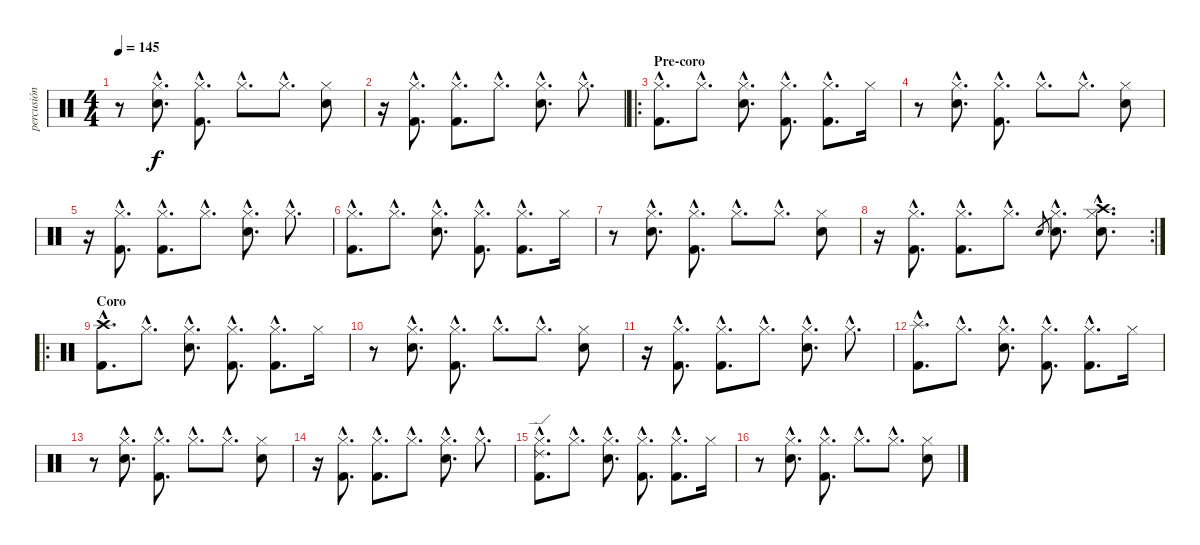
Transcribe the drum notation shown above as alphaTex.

\track ("percusión" "percusión") {instrument percussion}
\staff {score}
\articulation defaults
\ts (4 4)
\tempo 145
\clef neutral
\ks c
r.8{dy f} ("Hi-Hat (closed)"{hac} "Electric Snare (hit)"{hac}).8{d} ("Kick (hit) 2"{hac} "Hi-Hat (closed)"{hac}).8{d} "Hi-Hat (closed)"{hac}.8{d} "Hi-Hat (closed)"{hac}.8{d} ("Hi-Hat (closed)" "Electric Snare (hit)").8 |
r.16 ("Kick (hit) 2"{hac} "Hi-Hat (closed)"{hac}).8{d} ("Kick (hit) 2"{hac} "Hi-Hat (closed)"{hac}).8{d} "Hi-Hat (closed)"{hac}.8{d} ("Hi-Hat (closed)"{hac} "Electric Snare (hit)"{hac}).8{d} "Hi-Hat (closed)"{hac}.8{d} |
\ro
\section ("" "Pre-coro")
("Kick (hit) 2"{hac} "Hi-Hat (closed)"{hac}).8{d} "Hi-Hat (closed)"{hac}.8{d} ("Hi-Hat (closed)"{hac} "Electric Snare (hit)"{hac}).8{d} ("Kick (hit) 2"{hac} "Hi-Hat (closed)"{hac}).8{d} ("Kick (hit) 2"{hac} "Hi-Hat (closed)"{hac}).8{d} "Hi-Hat (closed)".16 |
r.8 ("Hi-Hat (closed)"{hac} "Electric Snare (hit)"{hac}).8{d} ("Kick (hit) 2"{hac} "Hi-Hat (closed)"{hac}).8{d} "Hi-Hat (closed)"{hac}.8{d} "Hi-Hat (closed)"{hac}.8{d} ("Hi-Hat (closed)" "Electric Snare (hit)").8 |
r.16 ("Kick (hit) 2"{hac} "Hi-Hat (closed)"{hac}).8{d} ("Kick (hit) 2"{hac} "Hi-Hat (closed)"{hac}).8{d} "Hi-Hat (closed)"{hac}.8{d} ("Hi-Hat (closed)"{hac} "Electric Snare (hit)"{hac}).8{d} "Hi-Hat (closed)"{hac}.8{d} |
("Kick (hit) 2"{hac} "Hi-Hat (closed)"{hac}).8{d} "Hi-Hat (closed)"{hac}.8{d} ("Hi-Hat (closed)"{hac} "Electric Snare (hit)"{hac}).8{d} ("Kick (hit) 2"{hac} "Hi-Hat (closed)"{hac}).8{d} ("Kick (hit) 2"{hac} "Hi-Hat (closed)"{hac}).8{d} "Hi-Hat (closed)".16 |
r.8 ("Hi-Hat (closed)"{hac} "Electric Snare (hit)"{hac}).8{d} ("Kick (hit) 2"{hac} "Hi-Hat (closed)"{hac}).8{d} "Hi-Hat (closed)"{hac}.8{d} "Hi-Hat (closed)"{hac}.8{d} ("Hi-Hat (closed)" "Electric Snare (hit)").8 |
\rc 2
r.16 ("Kick (hit) 2"{hac} "Hi-Hat (closed)"{hac}).8{d} ("Kick (hit) 2"{hac} "Hi-Hat (closed)"{hac}).8{d} "Hi-Hat (closed)"{hac}.8{d} "Electric Snare (hit)".8{gr} ("Hi-Hat (closed)"{hac} "Electric Snare (hit)"{hac}).8{d} ("Hi-Hat (closed)"{hac} "Electric Snare (hit)"{hac} "Crash high (hit)"{hac}).8{d} |
\ro
\section ("" "Coro")
("Kick (hit) 2"{hac} "Crash high (hit)"{hac}).8{d} "Hi-Hat (closed)"{hac}.8{d} ("Hi-Hat (closed)"{hac} "Electric Snare (hit)"{hac}).8{d} ("Kick (hit) 2"{hac} "Hi-Hat (closed)"{hac}).8{d} ("Kick (hit) 2"{hac} "Hi-Hat (closed)"{hac}).8{d} "Hi-Hat (closed)".16 |
r.8 ("Hi-Hat (closed)"{hac} "Electric Snare (hit)"{hac}).8{d} ("Kick (hit) 2"{hac} "Hi-Hat (closed)"{hac}).8{d} "Hi-Hat (closed)"{hac}.8{d} "Hi-Hat (closed)"{hac}.8{d} ("Hi-Hat (closed)" "Electric Snare (hit)").8 |
r.16 ("Kick (hit) 2"{hac} "Hi-Hat (closed)"{hac}).8{d} ("Kick (hit) 2"{hac} "Hi-Hat (closed)"{hac}).8{d} "Hi-Hat (closed)"{hac}.8{d} ("Hi-Hat (closed)"{hac} "Electric Snare (hit)"{hac}).8{d} "Hi-Hat (closed)"{hac}.8{d} |
("Kick (hit) 2"{hac} "Splash (hit)"{hac}).8{d} "Hi-Hat (closed)"{hac}.8{d} ("Hi-Hat (closed)"{hac} "Electric Snare (hit)"{hac}).8{d} ("Kick (hit) 2"{hac} "Hi-Hat (closed)"{hac}).8{d} ("Kick (hit) 2"{hac} "Hi-Hat (closed)"{hac}).8{d} "Hi-Hat (closed)".16 |
r.8 ("Hi-Hat (closed)"{hac} "Electric Snare (hit)"{hac}).8{d} ("Kick (hit) 2"{hac} "Hi-Hat (closed)"{hac}).8{d} "Hi-Hat (closed)"{hac}.8{d} "Hi-Hat (closed)"{hac}.8{d} ("Hi-Hat (closed)" "Electric Snare (hit)").8 |
r.16 ("Kick (hit) 2"{hac} "Hi-Hat (closed)"{hac}).8{d} ("Kick (hit) 2"{hac} "Hi-Hat (closed)"{hac}).8{d} "Hi-Hat (closed)"{hac}.8{d} ("Hi-Hat (closed)"{hac} "Electric Snare (hit)"{hac}).8{d} "Hi-Hat (closed)"{hac}.8{d} |
("Kick (hit) 2"{hac} "Hi-Hat (closed)"{hac} "Ride (edge) 2"{hac}).8{d} "Hi-Hat (closed)"{hac}.8{d} ("Hi-Hat (closed)"{hac} "Electric Snare (hit)"{hac}).8{d} ("Kick (hit) 2"{hac} "Hi-Hat (closed)"{hac}).8{d} ("Kick (hit) 2"{hac} "Hi-Hat (closed)"{hac}).8{d} "Hi-Hat (closed)".16 |
r.8 ("Hi-Hat (closed)"{hac} "Electric Snare (hit)"{hac}).8{d} ("Kick (hit) 2"{hac} "Hi-Hat (closed)"{hac}).8{d} "Hi-Hat (closed)"{hac}.8{d} "Hi-Hat (closed)"{hac}.8{d} ("Hi-Hat (closed)" "Electric Snare (hit)").8
